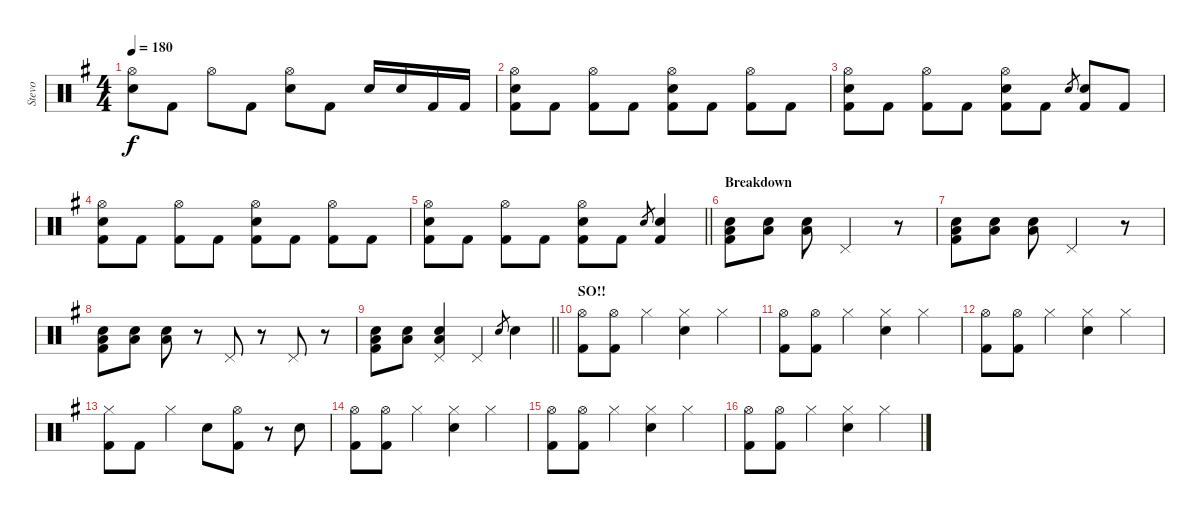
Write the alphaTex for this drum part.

\track ("Stevo" "Stevo") {instrument percussion}
\staff {score}
\articulation defaults
\ts (4 4)
\tempo 180
\clef neutral
\ks g
("Hi-Hat (open)" "Snare (hit) 2").8{dy f} "Kick (hit) 2".8 "Hi-Hat (open)".8 "Kick (hit) 2".8 ("Hi-Hat (open)" "Snare (hit) 2").8 "Kick (hit) 2".8 "Snare (hit) 2".16 "Snare (hit) 2".16 "Kick (hit) 2".16 "Kick (hit) 2".16 |
("Hi-Hat (open)" "Snare (hit) 2" "Kick (hit) 2").8 "Kick (hit) 2".8 ("Hi-Hat (open)" "Kick (hit) 2").8 "Kick (hit) 2".8 ("Hi-Hat (open)" "Snare (hit) 2" "Kick (hit) 2").8 "Kick (hit) 2".8 ("Hi-Hat (open)" "Kick (hit) 2").8 "Kick (hit) 2".8 |
("Hi-Hat (open)" "Snare (hit) 2" "Kick (hit) 2").8 "Kick (hit) 2".8 ("Hi-Hat (open)" "Kick (hit) 2").8 "Kick (hit) 2".8 ("Hi-Hat (open)" "Snare (hit) 2" "Kick (hit) 2").8 "Kick (hit) 2".8 "Snare (hit) 2".8{gr} ("Snare (hit) 2" "Kick (hit) 2").8 "Kick (hit) 2".8 |
("Hi-Hat (open)" "Snare (hit) 2" "Kick (hit) 2").8 "Kick (hit) 2".8 ("Hi-Hat (open)" "Kick (hit) 2").8 "Kick (hit) 2".8 ("Hi-Hat (open)" "Snare (hit) 2" "Kick (hit) 2").8 "Kick (hit) 2".8 ("Hi-Hat (open)" "Kick (hit) 2").8 "Kick (hit) 2".8 |
\barLineRight lightlight
("Hi-Hat (open)" "Snare (hit) 2" "Kick (hit) 2").8 "Kick (hit) 2".8 ("Hi-Hat (open)" "Kick (hit) 2").8 "Kick (hit) 2".8 ("Hi-Hat (open)" "Snare (hit) 2" "Kick (hit) 2").8 "Kick (hit) 2".8 "Snare (hit) 2".8{gr} ("Snare (hit) 2" "Kick (hit) 2").4 |
\section ("" "Breakdown")
("Low Tom (hit)" "Snare (hit) 2" "Kick (hit) 2").8 ("Low Tom (hit)" "Snare (hit) 2").8 ("Low Tom (hit)" "Snare (hit) 2").8 "Pedal Hi-Hat (hit)".2 r.8 |
("Low Tom (hit)" "Snare (hit) 2" "Kick (hit) 2").8 ("Low Tom (hit)" "Snare (hit) 2").8 ("Low Tom (hit)" "Snare (hit) 2").8 "Pedal Hi-Hat (hit)".2 r.8 |
("Low Tom (hit)" "Snare (hit) 2" "Kick (hit) 2").8 ("Low Tom (hit)" "Snare (hit) 2").8 ("Low Tom (hit)" "Snare (hit) 2").8 r.8 "Pedal Hi-Hat (hit)".8 r.8 "Pedal Hi-Hat (hit)".8 r.8 |
\barLineRight lightlight
("Low Tom (hit)" "Snare (hit) 2" "Kick (hit) 2").8 ("Low Tom (hit)" "Snare (hit) 2").8 ("Low Tom (hit)" "Snare (hit) 2" "Pedal Hi-Hat (hit)").4 "Pedal Hi-Hat (hit)".4 "Snare (hit) 2".8{gr} "Snare (hit) 2".4 |
\section ("" "SO!!")
("Hi-Hat (open)" "Kick (hit) 2").8 ("Hi-Hat (open)" "Kick (hit) 2").8 "Hi-Hat (closed)".4 ("Hi-Hat (closed)" "Snare (hit) 2").4 "Hi-Hat (closed)".4 |
("Hi-Hat (open)" "Kick (hit) 2").8 ("Hi-Hat (open)" "Kick (hit) 2").8 "Hi-Hat (closed)".4 ("Hi-Hat (closed)" "Snare (hit) 2").4 "Hi-Hat (closed)".4 |
("Hi-Hat (open)" "Kick (hit) 2").8 ("Hi-Hat (open)" "Kick (hit) 2").8 "Hi-Hat (closed)".4 ("Hi-Hat (closed)" "Snare (hit) 2").4 "Hi-Hat (closed)".4 |
("Hi-Hat (closed)" "Kick (hit) 2").8 "Kick (hit) 2".8 "Hi-Hat (closed)".4 "Snare (hit) 2".8 ("Hi-Hat (open)" "Kick (hit) 2").8 r.8 "Snare (hit) 2".8 |
("Hi-Hat (open)" "Kick (hit) 2").8 ("Hi-Hat (open)" "Kick (hit) 2").8 "Hi-Hat (closed)".4 ("Hi-Hat (closed)" "Snare (hit) 2").4 "Hi-Hat (closed)".4 |
("Hi-Hat (open)" "Kick (hit) 2").8 ("Hi-Hat (open)" "Kick (hit) 2").8 "Hi-Hat (closed)".4 ("Hi-Hat (closed)" "Snare (hit) 2").4 "Hi-Hat (closed)".4 |
("Hi-Hat (open)" "Kick (hit) 2").8 ("Hi-Hat (open)" "Kick (hit) 2").8 "Hi-Hat (closed)".4 ("Hi-Hat (closed)" "Snare (hit) 2").4 "Hi-Hat (closed)".4
